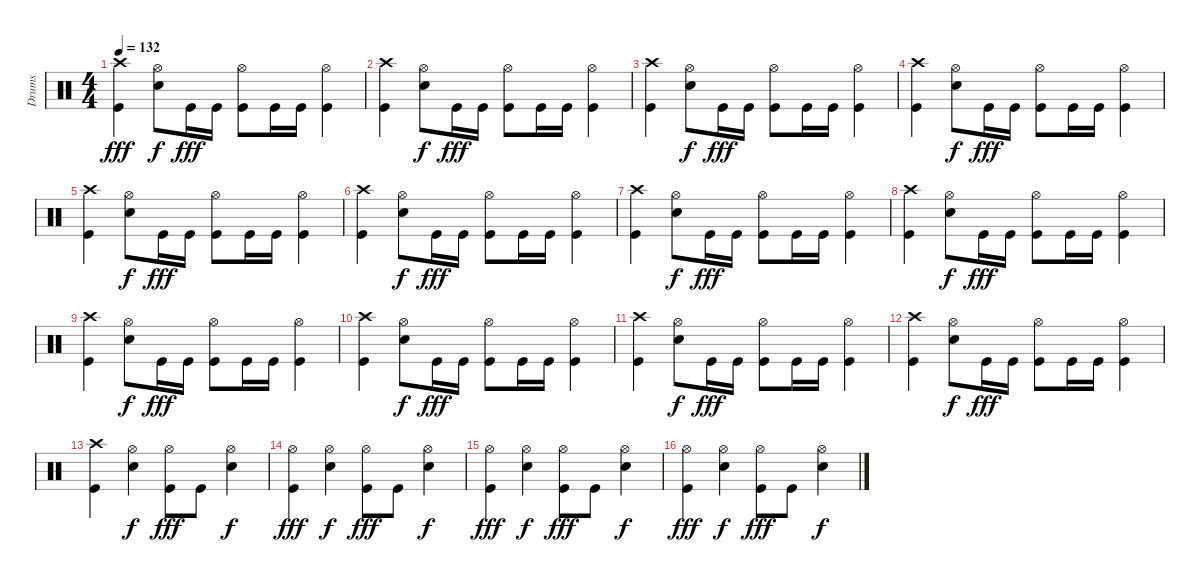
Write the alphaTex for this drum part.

\track ("Drums" "Drums") {instrument percussion}
\staff {score}
\articulation defaults
\ts (4 4)
\tempo 132
\clef neutral
\ks c
("Crash high (hit)" "Kick (hit)").4{dy fff} ("Hi-Hat (open)" "Snare (hit) 2").8{dy f} "Kick (hit)".16{dy fff} "Kick (hit)".16 ("Hi-Hat (open)" "Kick (hit)").8 "Kick (hit)".16 "Kick (hit)".16 ("Hi-Hat (open)" "Kick (hit)").4 |
("Crash high (hit)" "Kick (hit)").4 ("Hi-Hat (open)" "Snare (hit) 2").8{dy f} "Kick (hit)".16{dy fff} "Kick (hit)".16 ("Hi-Hat (open)" "Kick (hit)").8 "Kick (hit)".16 "Kick (hit)".16 ("Hi-Hat (open)" "Kick (hit)").4 |
("Crash high (hit)" "Kick (hit)").4 ("Hi-Hat (open)" "Snare (hit) 2").8{dy f} "Kick (hit)".16{dy fff} "Kick (hit)".16 ("Hi-Hat (open)" "Kick (hit)").8 "Kick (hit)".16 "Kick (hit)".16 ("Hi-Hat (open)" "Kick (hit)").4 |
("Crash high (hit)" "Kick (hit)").4 ("Hi-Hat (open)" "Snare (hit) 2").8{dy f} "Kick (hit)".16{dy fff} "Kick (hit)".16 ("Hi-Hat (open)" "Kick (hit)").8 "Kick (hit)".16 "Kick (hit)".16 ("Hi-Hat (open)" "Kick (hit)").4 |
("Crash high (hit)" "Kick (hit)").4 ("Hi-Hat (open)" "Snare (hit) 2").8{dy f} "Kick (hit)".16{dy fff} "Kick (hit)".16 ("Hi-Hat (open)" "Kick (hit)").8 "Kick (hit)".16 "Kick (hit)".16 ("Hi-Hat (open)" "Kick (hit)").4 |
("Crash high (hit)" "Kick (hit)").4 ("Hi-Hat (open)" "Snare (hit) 2").8{dy f} "Kick (hit)".16{dy fff} "Kick (hit)".16 ("Hi-Hat (open)" "Kick (hit)").8 "Kick (hit)".16 "Kick (hit)".16 ("Hi-Hat (open)" "Kick (hit)").4 |
("Crash high (hit)" "Kick (hit)").4 ("Hi-Hat (open)" "Snare (hit) 2").8{dy f} "Kick (hit)".16{dy fff} "Kick (hit)".16 ("Hi-Hat (open)" "Kick (hit)").8 "Kick (hit)".16 "Kick (hit)".16 ("Hi-Hat (open)" "Kick (hit)").4 |
("Crash high (hit)" "Kick (hit)").4 ("Hi-Hat (open)" "Snare (hit) 2").8{dy f} "Kick (hit)".16{dy fff} "Kick (hit)".16 ("Hi-Hat (open)" "Kick (hit)").8 "Kick (hit)".16 "Kick (hit)".16 ("Hi-Hat (open)" "Kick (hit)").4 |
("Crash high (hit)" "Kick (hit)").4 ("Hi-Hat (open)" "Snare (hit) 2").8{dy f} "Kick (hit)".16{dy fff} "Kick (hit)".16 ("Hi-Hat (open)" "Kick (hit)").8 "Kick (hit)".16 "Kick (hit)".16 ("Hi-Hat (open)" "Kick (hit)").4 |
("Crash high (hit)" "Kick (hit)").4 ("Hi-Hat (open)" "Snare (hit) 2").8{dy f} "Kick (hit)".16{dy fff} "Kick (hit)".16 ("Hi-Hat (open)" "Kick (hit)").8 "Kick (hit)".16 "Kick (hit)".16 ("Hi-Hat (open)" "Kick (hit)").4 |
("Crash high (hit)" "Kick (hit)").4 ("Hi-Hat (open)" "Snare (hit) 2").8{dy f} "Kick (hit)".16{dy fff} "Kick (hit)".16 ("Hi-Hat (open)" "Kick (hit)").8 "Kick (hit)".16 "Kick (hit)".16 ("Hi-Hat (open)" "Kick (hit)").4 |
("Crash high (hit)" "Kick (hit)").4 ("Hi-Hat (open)" "Snare (hit) 2").8{dy f} "Kick (hit)".16{dy fff} "Kick (hit)".16 ("Hi-Hat (open)" "Kick (hit)").8 "Kick (hit)".16 "Kick (hit)".16 ("Hi-Hat (open)" "Kick (hit)").4 |
("Crash high (hit)" "Kick (hit)").4 ("Hi-Hat (open)" "Snare (hit) 2").4{dy f} ("Hi-Hat (open)" "Kick (hit)").8{dy fff} "Kick (hit)".8 ("Hi-Hat (open)" "Snare (hit) 2").4{dy f} |
("Hi-Hat (open)" "Kick (hit)").4{dy fff} ("Hi-Hat (open)" "Snare (hit) 2").4{dy f} ("Hi-Hat (open)" "Kick (hit)").8{dy fff} "Kick (hit)".8 ("Hi-Hat (open)" "Snare (hit) 2").4{dy f} |
("Hi-Hat (open)" "Kick (hit)").4{dy fff} ("Hi-Hat (open)" "Snare (hit) 2").4{dy f} ("Hi-Hat (open)" "Kick (hit)").8{dy fff} "Kick (hit)".8 ("Hi-Hat (open)" "Snare (hit) 2").4{dy f} |
("Hi-Hat (open)" "Kick (hit)").4{dy fff} ("Hi-Hat (open)" "Snare (hit) 2").4{dy f} ("Hi-Hat (open)" "Kick (hit)").8{dy fff} "Kick (hit)".8 ("Hi-Hat (open)" "Snare (hit) 2").4{dy f}
